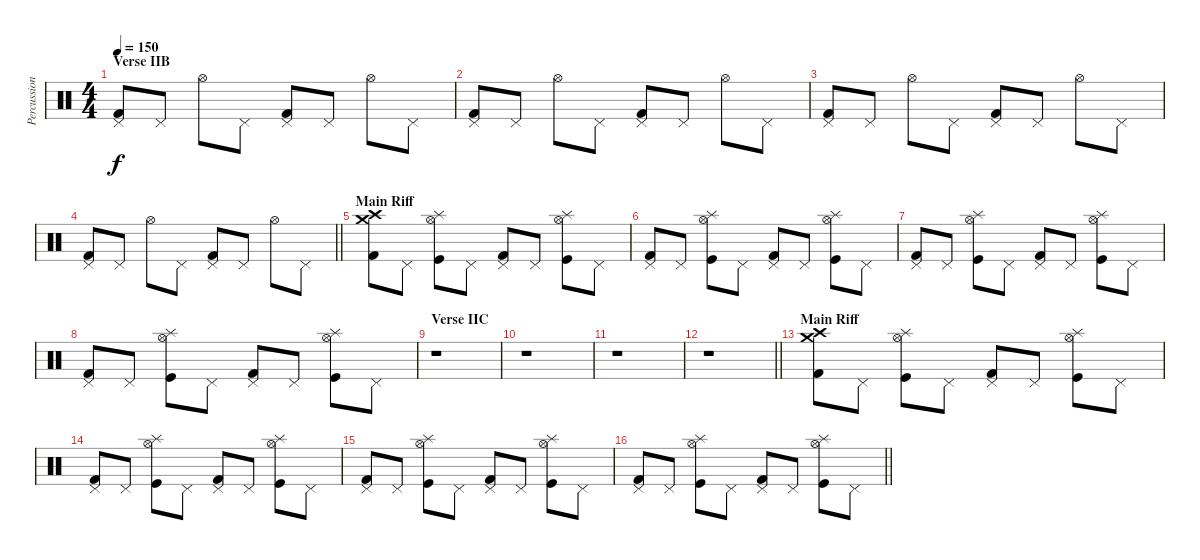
\track ("Percussion" "Percussion") {instrument percussion}
\staff {score}
\articulation defaults
\ts (4 4)
\section ("" "Verse IIB")
\tempo 150
\clef neutral
\ks c
("Pedal Hi-Hat (hit)" "Kick (hit) 2").8{dy f} "Pedal Hi-Hat (hit)".8 "Hi-Hat (open)".8 "Pedal Hi-Hat (hit)".8 ("Pedal Hi-Hat (hit)" "Kick (hit) 2").8 "Pedal Hi-Hat (hit)".8 "Hi-Hat (open)".8 "Pedal Hi-Hat (hit)".8 |
("Pedal Hi-Hat (hit)" "Kick (hit) 2").8 "Pedal Hi-Hat (hit)".8 "Hi-Hat (open)".8 "Pedal Hi-Hat (hit)".8 ("Pedal Hi-Hat (hit)" "Kick (hit) 2").8 "Pedal Hi-Hat (hit)".8 "Hi-Hat (open)".8 "Pedal Hi-Hat (hit)".8 |
("Pedal Hi-Hat (hit)" "Kick (hit) 2").8 "Pedal Hi-Hat (hit)".8 "Hi-Hat (open)".8 "Pedal Hi-Hat (hit)".8 ("Pedal Hi-Hat (hit)" "Kick (hit) 2").8 "Pedal Hi-Hat (hit)".8 "Hi-Hat (open)".8 "Pedal Hi-Hat (hit)".8 |
\barLineRight lightlight
("Pedal Hi-Hat (hit)" "Kick (hit) 2").8 "Pedal Hi-Hat (hit)".8 "Hi-Hat (open)".8 "Pedal Hi-Hat (hit)".8 ("Pedal Hi-Hat (hit)" "Kick (hit) 2").8 "Pedal Hi-Hat (hit)".8 "Hi-Hat (open)".8 "Pedal Hi-Hat (hit)".8 |
\section ("" "Main Riff")
("Crash high (hit)" "Crash medium (hit)" "Kick (hit) 2").8 "Pedal Hi-Hat (hit)".8 ("Hi-Hat (open)" "Splash (hit)" "Kick (hit)").8 "Pedal Hi-Hat (hit)".8 ("Pedal Hi-Hat (hit)" "Kick (hit) 2").8 "Pedal Hi-Hat (hit)".8 ("Hi-Hat (open)" "Splash (hit)" "Kick (hit)").8 "Pedal Hi-Hat (hit)".8 |
("Pedal Hi-Hat (hit)" "Kick (hit) 2").8 "Pedal Hi-Hat (hit)".8 ("Hi-Hat (open)" "Splash (hit)" "Kick (hit)").8 "Pedal Hi-Hat (hit)".8 ("Pedal Hi-Hat (hit)" "Kick (hit) 2").8 "Pedal Hi-Hat (hit)".8 ("Hi-Hat (open)" "Splash (hit)" "Kick (hit)").8 "Pedal Hi-Hat (hit)".8 |
("Pedal Hi-Hat (hit)" "Kick (hit) 2").8 "Pedal Hi-Hat (hit)".8 ("Hi-Hat (open)" "Splash (hit)" "Kick (hit)").8 "Pedal Hi-Hat (hit)".8 ("Pedal Hi-Hat (hit)" "Kick (hit) 2").8 "Pedal Hi-Hat (hit)".8 ("Hi-Hat (open)" "Splash (hit)" "Kick (hit)").8 "Pedal Hi-Hat (hit)".8 |
("Pedal Hi-Hat (hit)" "Kick (hit) 2").8 "Pedal Hi-Hat (hit)".8 ("Hi-Hat (open)" "Splash (hit)" "Kick (hit)").8 "Pedal Hi-Hat (hit)".8 ("Pedal Hi-Hat (hit)" "Kick (hit) 2").8 "Pedal Hi-Hat (hit)".8 ("Hi-Hat (open)" "Splash (hit)" "Kick (hit)").8 "Pedal Hi-Hat (hit)".8 |
\section ("" "Verse IIC")
r.1 |
r.1 |
r.1 |
\barLineRight lightlight
r.1 |
\section ("" "Main Riff")
("Crash high (hit)" "Crash medium (hit)" "Kick (hit) 2").8 "Pedal Hi-Hat (hit)".8 ("Hi-Hat (open)" "Splash (hit)" "Kick (hit)").8 "Pedal Hi-Hat (hit)".8 ("Pedal Hi-Hat (hit)" "Kick (hit) 2").8 "Pedal Hi-Hat (hit)".8 ("Hi-Hat (open)" "Splash (hit)" "Kick (hit)").8 "Pedal Hi-Hat (hit)".8 |
("Pedal Hi-Hat (hit)" "Kick (hit) 2").8 "Pedal Hi-Hat (hit)".8 ("Hi-Hat (open)" "Splash (hit)" "Kick (hit)").8 "Pedal Hi-Hat (hit)".8 ("Pedal Hi-Hat (hit)" "Kick (hit) 2").8 "Pedal Hi-Hat (hit)".8 ("Hi-Hat (open)" "Splash (hit)" "Kick (hit)").8 "Pedal Hi-Hat (hit)".8 |
("Pedal Hi-Hat (hit)" "Kick (hit) 2").8 "Pedal Hi-Hat (hit)".8 ("Hi-Hat (open)" "Splash (hit)" "Kick (hit)").8 "Pedal Hi-Hat (hit)".8 ("Pedal Hi-Hat (hit)" "Kick (hit) 2").8 "Pedal Hi-Hat (hit)".8 ("Hi-Hat (open)" "Splash (hit)" "Kick (hit)").8 "Pedal Hi-Hat (hit)".8 |
\barLineRight lightlight
("Pedal Hi-Hat (hit)" "Kick (hit) 2").8 "Pedal Hi-Hat (hit)".8 ("Hi-Hat (open)" "Splash (hit)" "Kick (hit)").8 "Pedal Hi-Hat (hit)".8 ("Pedal Hi-Hat (hit)" "Kick (hit) 2").8 "Pedal Hi-Hat (hit)".8 ("Hi-Hat (open)" "Splash (hit)" "Kick (hit)").8 "Pedal Hi-Hat (hit)".8
